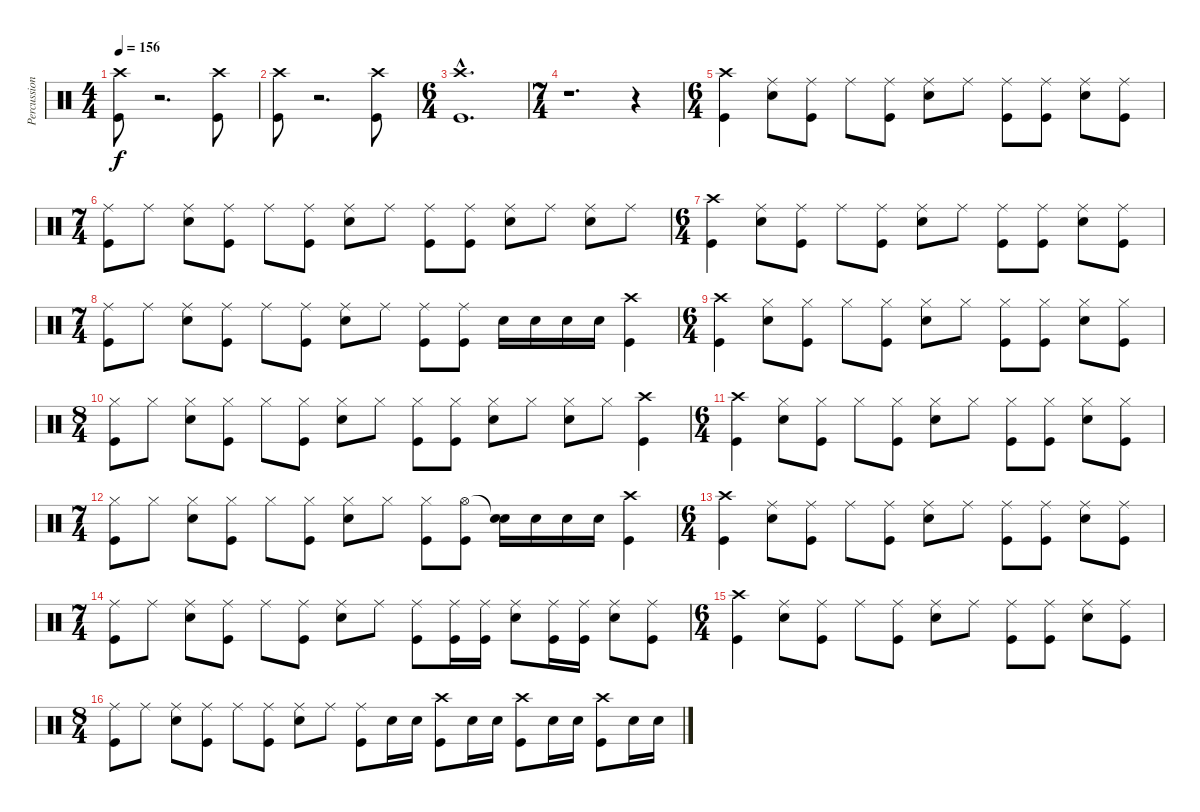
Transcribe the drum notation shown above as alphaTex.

\track ("Percussion" "Percussion") {instrument percussion}
\staff {score}
\articulation defaults
\ts (4 4)
\tempo 156
\clef neutral
\ks c
("Crash high (hit)" "Kick (hit)").8{dy f} r.2{d} ("Crash high (hit)" "Kick (hit)").8 |
("Crash high (hit)" "Kick (hit)").8 r.2{d} ("Crash high (hit)" "Kick (hit)").8 |
\ts (6 4)
("Crash high (hit)"{hac} "Kick (hit)"{hac}).1{d} |
\ts (7 4)
r.1{d} r.4 |
\ts (6 4)
("Crash high (hit)" "Kick (hit)").4 ("Ride (middle)" "Electric Snare (hit)").8 ("Ride (middle)" "Kick (hit)").8 "Ride (middle)".8 ("Ride (middle)" "Kick (hit)").8 ("Ride (middle)" "Electric Snare (hit)").8 "Ride (middle)".8 ("Ride (middle)" "Kick (hit)").8 ("Ride (middle)" "Kick (hit)").8 ("Ride (middle)" "Electric Snare (hit)").8 ("Ride (middle)" "Kick (hit)").8 |
\ts (7 4)
("Ride (middle)" "Kick (hit)").8 "Ride (middle)".8 ("Ride (middle)" "Electric Snare (hit)").8 ("Ride (middle)" "Kick (hit)").8 "Ride (middle)".8 ("Ride (middle)" "Kick (hit)").8 ("Ride (middle)" "Electric Snare (hit)").8 "Ride (middle)".8 ("Ride (middle)" "Kick (hit)").8 ("Ride (middle)" "Kick (hit)").8 ("Ride (middle)" "Electric Snare (hit)").8 "Ride (middle)".8 ("Ride (middle)" "Electric Snare (hit)").8 "Ride (middle)".8 |
\ts (6 4)
("Crash high (hit)" "Kick (hit)").4 ("Ride (middle)" "Electric Snare (hit)").8 ("Ride (middle)" "Kick (hit)").8 "Ride (middle)".8 ("Ride (middle)" "Kick (hit)").8 ("Ride (middle)" "Electric Snare (hit)").8 "Ride (middle)".8 ("Ride (middle)" "Kick (hit)").8 ("Ride (middle)" "Kick (hit)").8 ("Ride (middle)" "Electric Snare (hit)").8 ("Ride (middle)" "Kick (hit)").8 |
\ts (7 4)
("Ride (middle)" "Kick (hit)").8 "Ride (middle)".8 ("Ride (middle)" "Electric Snare (hit)").8 ("Ride (middle)" "Kick (hit)").8 "Ride (middle)".8 ("Ride (middle)" "Kick (hit)").8 ("Ride (middle)" "Electric Snare (hit)").8 "Ride (middle)".8 ("Ride (middle)" "Kick (hit)").8 ("Ride (middle)" "Kick (hit)").8 "Electric Snare (hit)".16 "Electric Snare (hit)".16 "Electric Snare (hit)".16 "Electric Snare (hit)".16 ("Crash high (hit)" "Kick (hit)").4 |
\ts (6 4)
("Crash high (hit)" "Kick (hit)").4 ("Hi-Hat (closed)" "Electric Snare (hit)").8 ("Hi-Hat (closed)" "Kick (hit)").8 "Hi-Hat (closed)".8 ("Hi-Hat (closed)" "Kick (hit)").8 ("Hi-Hat (closed)" "Electric Snare (hit)").8 "Hi-Hat (closed)".8 ("Hi-Hat (closed)" "Kick (hit)").8 ("Hi-Hat (closed)" "Kick (hit)").8 ("Hi-Hat (closed)" "Electric Snare (hit)").8 ("Hi-Hat (closed)" "Kick (hit)").8 |
\ts (8 4)
("Hi-Hat (closed)" "Kick (hit)").8 "Hi-Hat (closed)".8 ("Hi-Hat (closed)" "Electric Snare (hit)").8 ("Hi-Hat (closed)" "Kick (hit)").8 "Hi-Hat (closed)".8 ("Hi-Hat (closed)" "Kick (hit)").8 ("Hi-Hat (closed)" "Electric Snare (hit)").8 "Hi-Hat (closed)".8 ("Hi-Hat (closed)" "Kick (hit)").8 ("Hi-Hat (closed)" "Kick (hit)").8 ("Hi-Hat (closed)" "Electric Snare (hit)").8 "Hi-Hat (closed)".8 ("Hi-Hat (closed)" "Electric Snare (hit)").8 "Hi-Hat (closed)".8 ("Crash high (hit)" "Kick (hit)").4 |
\ts (6 4)
("Crash high (hit)" "Kick (hit)").4 ("Hi-Hat (closed)" "Electric Snare (hit)").8 ("Hi-Hat (closed)" "Kick (hit)").8 "Hi-Hat (closed)".8 ("Hi-Hat (closed)" "Kick (hit)").8 ("Hi-Hat (closed)" "Electric Snare (hit)").8 "Hi-Hat (closed)".8 ("Hi-Hat (closed)" "Kick (hit)").8 ("Hi-Hat (closed)" "Kick (hit)").8 ("Hi-Hat (closed)" "Electric Snare (hit)").8 ("Hi-Hat (closed)" "Kick (hit)").8 |
\ts (7 4)
("Hi-Hat (closed)" "Kick (hit)").8 "Hi-Hat (closed)".8 ("Hi-Hat (closed)" "Electric Snare (hit)").8 ("Hi-Hat (closed)" "Kick (hit)").8 "Hi-Hat (closed)".8 ("Hi-Hat (closed)" "Kick (hit)").8 ("Hi-Hat (closed)" "Electric Snare (hit)").8 "Hi-Hat (closed)".8 ("Hi-Hat (closed)" "Kick (hit)").8 ("Hi-Hat (open)" "Kick (hit)").8 ("Snare (hit)"{t} "Electric Snare (hit)").16 "Electric Snare (hit)".16 "Electric Snare (hit)".16 "Electric Snare (hit)".16 ("Crash high (hit)" "Kick (hit)").4 |
\ts (6 4)
("Crash high (hit)" "Kick (hit)").4 ("Ride (middle)" "Electric Snare (hit)").8 ("Ride (middle)" "Kick (hit)").8 "Ride (middle)".8 ("Ride (middle)" "Kick (hit)").8 ("Ride (middle)" "Electric Snare (hit)").8 "Ride (middle)".8 ("Ride (middle)" "Kick (hit)").8 ("Ride (middle)" "Kick (hit)").8 ("Ride (middle)" "Electric Snare (hit)").8 ("Ride (middle)" "Kick (hit)").8 |
\ts (7 4)
("Ride (middle)" "Kick (hit)").8 "Ride (middle)".8 ("Ride (middle)" "Electric Snare (hit)").8 ("Ride (middle)" "Kick (hit)").8 "Ride (middle)".8 ("Ride (middle)" "Kick (hit)").8 ("Ride (middle)" "Electric Snare (hit)").8 "Ride (middle)".8 ("Ride (middle)" "Kick (hit)").8 ("Ride (middle)" "Kick (hit)").16 ("Ride (middle)" "Kick (hit)").16 ("Ride (middle)" "Electric Snare (hit)").8 ("Ride (middle)" "Kick (hit)").16 ("Ride (middle)" "Kick (hit)").16 ("Ride (middle)" "Electric Snare (hit)").8 ("Ride (middle)" "Kick (hit)").8 |
\ts (6 4)
("Crash high (hit)" "Kick (hit)").4 ("Ride (middle)" "Electric Snare (hit)").8 ("Ride (middle)" "Kick (hit)").8 "Ride (middle)".8 ("Ride (middle)" "Kick (hit)").8 ("Ride (middle)" "Electric Snare (hit)").8 "Ride (middle)".8 ("Ride (middle)" "Kick (hit)").8 ("Ride (middle)" "Kick (hit)").8 ("Ride (middle)" "Electric Snare (hit)").8 ("Ride (middle)" "Kick (hit)").8 |
\ts (8 4)
("Ride (middle)" "Kick (hit)").8 "Ride (middle)".8 ("Ride (middle)" "Electric Snare (hit)").8 ("Ride (middle)" "Kick (hit)").8 "Ride (middle)".8 ("Ride (middle)" "Kick (hit)").8 ("Ride (middle)" "Electric Snare (hit)").8 "Ride (middle)".8 ("Ride (middle)" "Kick (hit)").8 "Electric Snare (hit)".16 "Electric Snare (hit)".16 ("Crash high (hit)" "Kick (hit)").8 "Electric Snare (hit)".16 "Electric Snare (hit)".16 ("Crash high (hit)" "Kick (hit)").8 "Electric Snare (hit)".16 "Electric Snare (hit)".16 ("Crash high (hit)" "Kick (hit)").8 "Electric Snare (hit)".16 "Electric Snare (hit)".16
